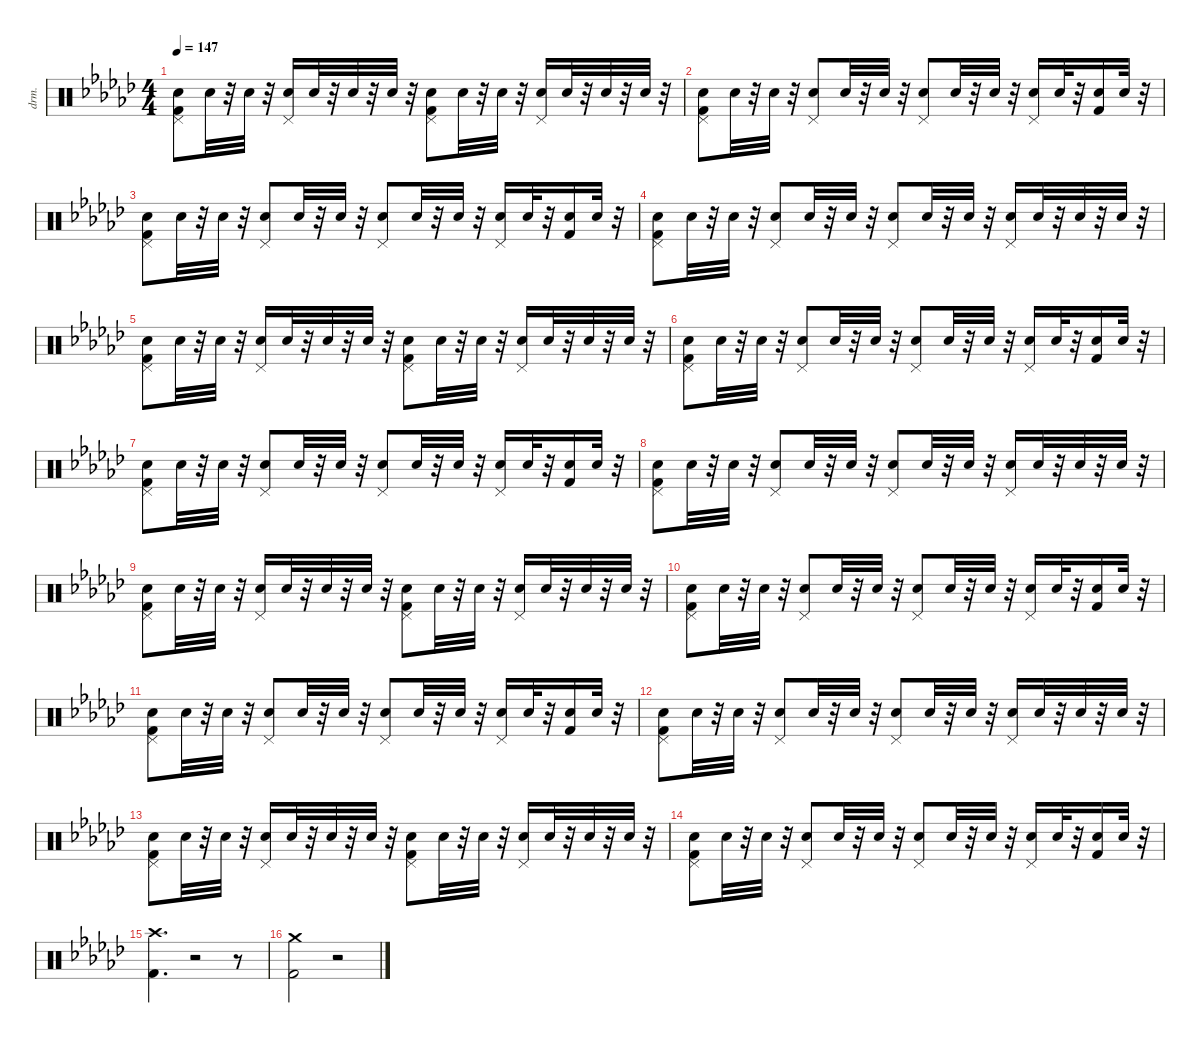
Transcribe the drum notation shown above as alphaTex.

\defaultSystemsLayout 4
\hideDynamics
\bracketExtendMode nobrackets
\otherSystemsTrackNameOrientation horizontal
\track ("Drums" "drm.") {instrument percussion}
\staff {score}
\articulation defaults
\ts (4 4)
\tempo 147
\clef neutral
\ks ebminor
("Pedal Hi-Hat (hit)"{acc forcenatural} "Kick (hit) 2"{acc forcenatural} "Snare (hit) 2"{acc forcenatural}).8{dy f beam Down} "Snare (hit) 2"{acc forcenatural}.32{dy mf beam Down} r.32{beam Down} "Snare (hit) 2"{acc forcenatural}.32{beam Down} r.32{beam Down} ("Pedal Hi-Hat (hit)"{acc forcenatural} "Snare (hit) 2"{acc forcenatural}).16{dy f beam Up} "Snare (hit) 2"{acc forcenatural}.32{dy mf beam Up} r.32{beam Up} "Snare (hit) 2"{acc forcenatural}.32{beam Up} r.32{beam Up} "Snare (hit) 2"{acc forcenatural}.32{beam Up} r.32{beam Up} ("Pedal Hi-Hat (hit)"{acc forcenatural} "Kick (hit) 2"{acc forcenatural} "Snare (hit) 2"{acc forcenatural}).8{dy f beam Down} "Snare (hit) 2"{acc forcenatural}.32{dy mf beam Down} r.32{beam Down} "Snare (hit) 2"{acc forcenatural}.32{beam Down} r.32{beam Down} ("Pedal Hi-Hat (hit)"{acc forcenatural} "Snare (hit) 2"{acc forcenatural}).16{dy f beam Up} "Snare (hit) 2"{acc forcenatural}.32{dy mf beam Up} r.32{beam Up} "Snare (hit) 2"{acc forcenatural}.32{beam Up} r.32{beam Up} "Snare (hit) 2"{acc forcenatural}.32{beam Up} r.32{beam Up} |
("Pedal Hi-Hat (hit)"{acc forcenatural} "Kick (hit) 2"{acc forcenatural} "Snare (hit) 2"{acc forcenatural}).8{dy f beam Down} "Snare (hit) 2"{acc forcenatural}.32{dy mf beam Down} r.32{beam Down} "Snare (hit) 2"{acc forcenatural}.32{beam Down} r.32{beam Down} ("Pedal Hi-Hat (hit)"{acc forcenatural} "Snare (hit) 2"{acc forcenatural}).8{dy f beam Up} "Snare (hit) 2"{acc forcenatural}.32{dy mf beam Up} r.32{beam Up} "Snare (hit) 2"{acc forcenatural}.32{beam Up} r.32{beam Up} ("Pedal Hi-Hat (hit)"{acc forcenatural} "Snare (hit) 2"{acc forcenatural}).8{dy f beam Up} "Snare (hit) 2"{acc forcenatural}.32{dy mf beam Up} r.32{beam Up} "Snare (hit) 2"{acc forcenatural}.32{beam Up} r.32{beam Up} ("Pedal Hi-Hat (hit)"{acc forcenatural} "Snare (hit) 2"{acc forcenatural}).16{dy f beam Up} "Snare (hit) 2"{acc forcenatural}.32{dy mf beam Up} r.32{beam Up} ("Kick (hit) 2"{acc forcenatural} "Snare (hit) 2"{acc forcenatural}).16{dy f beam Up} "Snare (hit) 2"{acc forcenatural}.32{dy mf beam Up} r.32{beam Up} |
("Pedal Hi-Hat (hit)"{acc forcenatural} "Kick (hit) 2"{acc forcenatural} "Snare (hit) 2"{acc forcenatural}).8{dy f beam Down} "Snare (hit) 2"{acc forcenatural}.32{dy mf beam Down} r.32{beam Down} "Snare (hit) 2"{acc forcenatural}.32{beam Down} r.32{beam Down} ("Pedal Hi-Hat (hit)"{acc forcenatural} "Snare (hit) 2"{acc forcenatural}).8{dy f beam Up} "Snare (hit) 2"{acc forcenatural}.32{dy mf beam Up} r.32{beam Up} "Snare (hit) 2"{acc forcenatural}.32{beam Up} r.32{beam Up} ("Pedal Hi-Hat (hit)"{acc forcenatural} "Snare (hit) 2"{acc forcenatural}).8{dy f beam Up} "Snare (hit) 2"{acc forcenatural}.32{dy mf beam Up} r.32{beam Up} "Snare (hit) 2"{acc forcenatural}.32{beam Up} r.32{beam Up} ("Pedal Hi-Hat (hit)"{acc forcenatural} "Snare (hit) 2"{acc forcenatural}).16{dy f beam Up} "Snare (hit) 2"{acc forcenatural}.32{dy mf beam Up} r.32{beam Up} ("Kick (hit) 2"{acc forcenatural} "Snare (hit) 2"{acc forcenatural}).16{dy f beam Up} "Snare (hit) 2"{acc forcenatural}.32{dy mf beam Up} r.32{beam Up} |
("Pedal Hi-Hat (hit)"{acc forcenatural} "Kick (hit) 2"{acc forcenatural} "Snare (hit) 2"{acc forcenatural}).8{dy f beam Down} "Snare (hit) 2"{acc forcenatural}.32{dy mf beam Down} r.32{beam Down} "Snare (hit) 2"{acc forcenatural}.32{beam Down} r.32{beam Down} ("Pedal Hi-Hat (hit)"{acc forcenatural} "Snare (hit) 2"{acc forcenatural}).8{dy f beam Up} "Snare (hit) 2"{acc forcenatural}.32{dy mf beam Up} r.32{beam Up} "Snare (hit) 2"{acc forcenatural}.32{beam Up} r.32{beam Up} ("Pedal Hi-Hat (hit)"{acc forcenatural} "Snare (hit) 2"{acc forcenatural}).8{dy f beam Up} "Snare (hit) 2"{acc forcenatural}.32{dy mf beam Up} r.32{beam Up} "Snare (hit) 2"{acc forcenatural}.32{beam Up} r.32{beam Up} ("Pedal Hi-Hat (hit)"{acc forcenatural} "Snare (hit) 2"{acc forcenatural}).16{dy f beam Up} "Snare (hit) 2"{acc forcenatural}.32{dy mf beam Up} r.32{beam Up} "Snare (hit) 2"{acc forcenatural}.32{beam Up} r.32{beam Up} "Snare (hit) 2"{acc forcenatural}.32{beam Up} r.32{beam Up} |
("Pedal Hi-Hat (hit)"{acc forcenatural} "Kick (hit) 2"{acc forcenatural} "Snare (hit) 2"{acc forcenatural}).8{dy f beam Down} "Snare (hit) 2"{acc forcenatural}.32{dy mf beam Down} r.32{beam Down} "Snare (hit) 2"{acc forcenatural}.32{beam Down} r.32{beam Down} ("Pedal Hi-Hat (hit)"{acc forcenatural} "Snare (hit) 2"{acc forcenatural}).16{dy f beam Up} "Snare (hit) 2"{acc forcenatural}.32{dy mf beam Up} r.32{beam Up} "Snare (hit) 2"{acc forcenatural}.32{beam Up} r.32{beam Up} "Snare (hit) 2"{acc forcenatural}.32{beam Up} r.32{beam Up} ("Pedal Hi-Hat (hit)"{acc forcenatural} "Kick (hit) 2"{acc forcenatural} "Snare (hit) 2"{acc forcenatural}).8{dy f beam Down} "Snare (hit) 2"{acc forcenatural}.32{dy mf beam Down} r.32{beam Down} "Snare (hit) 2"{acc forcenatural}.32{beam Down} r.32{beam Down} ("Pedal Hi-Hat (hit)"{acc forcenatural} "Snare (hit) 2"{acc forcenatural}).16{dy f beam Up} "Snare (hit) 2"{acc forcenatural}.32{dy mf beam Up} r.32{beam Up} "Snare (hit) 2"{acc forcenatural}.32{beam Up} r.32{beam Up} "Snare (hit) 2"{acc forcenatural}.32{beam Up} r.32{beam Up} |
("Pedal Hi-Hat (hit)"{acc forcenatural} "Kick (hit) 2"{acc forcenatural} "Snare (hit) 2"{acc forcenatural}).8{dy f beam Down} "Snare (hit) 2"{acc forcenatural}.32{dy mf beam Down} r.32{beam Down} "Snare (hit) 2"{acc forcenatural}.32{beam Down} r.32{beam Down} ("Pedal Hi-Hat (hit)"{acc forcenatural} "Snare (hit) 2"{acc forcenatural}).8{dy f beam Up} "Snare (hit) 2"{acc forcenatural}.32{dy mf beam Up} r.32{beam Up} "Snare (hit) 2"{acc forcenatural}.32{beam Up} r.32{beam Up} ("Pedal Hi-Hat (hit)"{acc forcenatural} "Snare (hit) 2"{acc forcenatural}).8{dy f beam Up} "Snare (hit) 2"{acc forcenatural}.32{dy mf beam Up} r.32{beam Up} "Snare (hit) 2"{acc forcenatural}.32{beam Up} r.32{beam Up} ("Pedal Hi-Hat (hit)"{acc forcenatural} "Snare (hit) 2"{acc forcenatural}).16{dy f beam Up} "Snare (hit) 2"{acc forcenatural}.32{dy mf beam Up} r.32{beam Up} ("Kick (hit) 2"{acc forcenatural} "Snare (hit) 2"{acc forcenatural}).16{dy f beam Up} "Snare (hit) 2"{acc forcenatural}.32{dy mf beam Up} r.32{beam Up} |
("Pedal Hi-Hat (hit)"{acc forcenatural} "Kick (hit) 2"{acc forcenatural} "Snare (hit) 2"{acc forcenatural}).8{dy f beam Down} "Snare (hit) 2"{acc forcenatural}.32{dy mf beam Down} r.32{beam Down} "Snare (hit) 2"{acc forcenatural}.32{beam Down} r.32{beam Down} ("Pedal Hi-Hat (hit)"{acc forcenatural} "Snare (hit) 2"{acc forcenatural}).8{dy f beam Up} "Snare (hit) 2"{acc forcenatural}.32{dy mf beam Up} r.32{beam Up} "Snare (hit) 2"{acc forcenatural}.32{beam Up} r.32{beam Up} ("Pedal Hi-Hat (hit)"{acc forcenatural} "Snare (hit) 2"{acc forcenatural}).8{dy f beam Up} "Snare (hit) 2"{acc forcenatural}.32{dy mf beam Up} r.32{beam Up} "Snare (hit) 2"{acc forcenatural}.32{beam Up} r.32{beam Up} ("Pedal Hi-Hat (hit)"{acc forcenatural} "Snare (hit) 2"{acc forcenatural}).16{dy f beam Up} "Snare (hit) 2"{acc forcenatural}.32{dy mf beam Up} r.32{beam Up} ("Kick (hit) 2"{acc forcenatural} "Snare (hit) 2"{acc forcenatural}).16{dy f beam Up} "Snare (hit) 2"{acc forcenatural}.32{dy mf beam Up} r.32{beam Up} |
("Pedal Hi-Hat (hit)"{acc forcenatural} "Kick (hit) 2"{acc forcenatural} "Snare (hit) 2"{acc forcenatural}).8{dy f beam Down} "Snare (hit) 2"{acc forcenatural}.32{dy mf beam Down} r.32{beam Down} "Snare (hit) 2"{acc forcenatural}.32{beam Down} r.32{beam Down} ("Pedal Hi-Hat (hit)"{acc forcenatural} "Snare (hit) 2"{acc forcenatural}).8{dy f beam Up} "Snare (hit) 2"{acc forcenatural}.32{dy mf beam Up} r.32{beam Up} "Snare (hit) 2"{acc forcenatural}.32{beam Up} r.32{beam Up} ("Pedal Hi-Hat (hit)"{acc forcenatural} "Snare (hit) 2"{acc forcenatural}).8{dy f beam Up} "Snare (hit) 2"{acc forcenatural}.32{dy mf beam Up} r.32{beam Up} "Snare (hit) 2"{acc forcenatural}.32{beam Up} r.32{beam Up} ("Pedal Hi-Hat (hit)"{acc forcenatural} "Snare (hit) 2"{acc forcenatural}).16{dy f beam Up} "Snare (hit) 2"{acc forcenatural}.32{dy mf beam Up} r.32{beam Up} "Snare (hit) 2"{acc forcenatural}.32{beam Up} r.32{beam Up} "Snare (hit) 2"{acc forcenatural}.32{beam Up} r.32{beam Up} |
("Pedal Hi-Hat (hit)"{acc forcenatural} "Kick (hit) 2"{acc forcenatural} "Snare (hit) 2"{acc forcenatural}).8{dy f beam Down} "Snare (hit) 2"{acc forcenatural}.32{dy mf beam Down} r.32{beam Down} "Snare (hit) 2"{acc forcenatural}.32{beam Down} r.32{beam Down} ("Pedal Hi-Hat (hit)"{acc forcenatural} "Snare (hit) 2"{acc forcenatural}).16{dy f beam Up} "Snare (hit) 2"{acc forcenatural}.32{dy mf beam Up} r.32{beam Up} "Snare (hit) 2"{acc forcenatural}.32{beam Up} r.32{beam Up} "Snare (hit) 2"{acc forcenatural}.32{beam Up} r.32{beam Up} ("Pedal Hi-Hat (hit)"{acc forcenatural} "Kick (hit) 2"{acc forcenatural} "Snare (hit) 2"{acc forcenatural}).8{dy f beam Down} "Snare (hit) 2"{acc forcenatural}.32{dy mf beam Down} r.32{beam Down} "Snare (hit) 2"{acc forcenatural}.32{beam Down} r.32{beam Down} ("Pedal Hi-Hat (hit)"{acc forcenatural} "Snare (hit) 2"{acc forcenatural}).16{dy f beam Up} "Snare (hit) 2"{acc forcenatural}.32{dy mf beam Up} r.32{beam Up} "Snare (hit) 2"{acc forcenatural}.32{beam Up} r.32{beam Up} "Snare (hit) 2"{acc forcenatural}.32{beam Up} r.32{beam Up} |
("Pedal Hi-Hat (hit)"{acc forcenatural} "Kick (hit) 2"{acc forcenatural} "Snare (hit) 2"{acc forcenatural}).8{dy f beam Down} "Snare (hit) 2"{acc forcenatural}.32{dy mf beam Down} r.32{beam Down} "Snare (hit) 2"{acc forcenatural}.32{beam Down} r.32{beam Down} ("Pedal Hi-Hat (hit)"{acc forcenatural} "Snare (hit) 2"{acc forcenatural}).8{dy f beam Up} "Snare (hit) 2"{acc forcenatural}.32{dy mf beam Up} r.32{beam Up} "Snare (hit) 2"{acc forcenatural}.32{beam Up} r.32{beam Up} ("Pedal Hi-Hat (hit)"{acc forcenatural} "Snare (hit) 2"{acc forcenatural}).8{dy f beam Up} "Snare (hit) 2"{acc forcenatural}.32{dy mf beam Up} r.32{beam Up} "Snare (hit) 2"{acc forcenatural}.32{beam Up} r.32{beam Up} ("Pedal Hi-Hat (hit)"{acc forcenatural} "Snare (hit) 2"{acc forcenatural}).16{dy f beam Up} "Snare (hit) 2"{acc forcenatural}.32{dy mf beam Up} r.32{beam Up} ("Kick (hit) 2"{acc forcenatural} "Snare (hit) 2"{acc forcenatural}).16{dy f beam Up} "Snare (hit) 2"{acc forcenatural}.32{dy mf beam Up} r.32{beam Up} |
("Pedal Hi-Hat (hit)"{acc forcenatural} "Kick (hit) 2"{acc forcenatural} "Snare (hit) 2"{acc forcenatural}).8{dy f beam Down} "Snare (hit) 2"{acc forcenatural}.32{dy mf beam Down} r.32{beam Down} "Snare (hit) 2"{acc forcenatural}.32{beam Down} r.32{beam Down} ("Pedal Hi-Hat (hit)"{acc forcenatural} "Snare (hit) 2"{acc forcenatural}).8{dy f beam Up} "Snare (hit) 2"{acc forcenatural}.32{dy mf beam Up} r.32{beam Up} "Snare (hit) 2"{acc forcenatural}.32{beam Up} r.32{beam Up} ("Pedal Hi-Hat (hit)"{acc forcenatural} "Snare (hit) 2"{acc forcenatural}).8{dy f beam Up} "Snare (hit) 2"{acc forcenatural}.32{dy mf beam Up} r.32{beam Up} "Snare (hit) 2"{acc forcenatural}.32{beam Up} r.32{beam Up} ("Pedal Hi-Hat (hit)"{acc forcenatural} "Snare (hit) 2"{acc forcenatural}).16{dy f beam Up} "Snare (hit) 2"{acc forcenatural}.32{dy mf beam Up} r.32{beam Up} ("Kick (hit) 2"{acc forcenatural} "Snare (hit) 2"{acc forcenatural}).16{dy f beam Up} "Snare (hit) 2"{acc forcenatural}.32{dy mf beam Up} r.32{beam Up} |
("Pedal Hi-Hat (hit)"{acc forcenatural} "Kick (hit) 2"{acc forcenatural} "Snare (hit) 2"{acc forcenatural}).8{dy f beam Down} "Snare (hit) 2"{acc forcenatural}.32{dy mf beam Down} r.32{beam Down} "Snare (hit) 2"{acc forcenatural}.32{beam Down} r.32{beam Down} ("Pedal Hi-Hat (hit)"{acc forcenatural} "Snare (hit) 2"{acc forcenatural}).8{dy f beam Up} "Snare (hit) 2"{acc forcenatural}.32{dy mf beam Up} r.32{beam Up} "Snare (hit) 2"{acc forcenatural}.32{beam Up} r.32{beam Up} ("Pedal Hi-Hat (hit)"{acc forcenatural} "Snare (hit) 2"{acc forcenatural}).8{dy f beam Up} "Snare (hit) 2"{acc forcenatural}.32{dy mf beam Up} r.32{beam Up} "Snare (hit) 2"{acc forcenatural}.32{beam Up} r.32{beam Up} ("Pedal Hi-Hat (hit)"{acc forcenatural} "Snare (hit) 2"{acc forcenatural}).16{dy f beam Up} "Snare (hit) 2"{acc forcenatural}.32{dy mf beam Up} r.32{beam Up} "Snare (hit) 2"{acc forcenatural}.32{beam Up} r.32{beam Up} "Snare (hit) 2"{acc forcenatural}.32{beam Up} r.32{beam Up} |
("Pedal Hi-Hat (hit)"{acc forcenatural} "Kick (hit) 2"{acc forcenatural} "Snare (hit) 2"{acc forcenatural}).8{dy f beam Down} "Snare (hit) 2"{acc forcenatural}.32{dy mf beam Down} r.32{beam Down} "Snare (hit) 2"{acc forcenatural}.32{beam Down} r.32{beam Down} ("Pedal Hi-Hat (hit)"{acc forcenatural} "Snare (hit) 2"{acc forcenatural}).16{dy f beam Up} "Snare (hit) 2"{acc forcenatural}.32{dy mf beam Up} r.32{beam Up} "Snare (hit) 2"{acc forcenatural}.32{beam Up} r.32{beam Up} "Snare (hit) 2"{acc forcenatural}.32{beam Up} r.32{beam Up} ("Pedal Hi-Hat (hit)"{acc forcenatural} "Kick (hit) 2"{acc forcenatural} "Snare (hit) 2"{acc forcenatural}).8{dy f beam Down} "Snare (hit) 2"{acc forcenatural}.32{dy mf beam Down} r.32{beam Down} "Snare (hit) 2"{acc forcenatural}.32{beam Down} r.32{beam Down} ("Pedal Hi-Hat (hit)"{acc forcenatural} "Snare (hit) 2"{acc forcenatural}).16{dy f beam Up} "Snare (hit) 2"{acc forcenatural}.32{dy mf beam Up} r.32{beam Up} "Snare (hit) 2"{acc forcenatural}.32{beam Up} r.32{beam Up} "Snare (hit) 2"{acc forcenatural}.32{beam Up} r.32{beam Up} |
("Pedal Hi-Hat (hit)"{acc forcenatural} "Kick (hit) 2"{acc forcenatural} "Snare (hit) 2"{acc forcenatural}).8{dy f beam Down} "Snare (hit) 2"{acc forcenatural}.32{dy mf beam Down} r.32{beam Down} "Snare (hit) 2"{acc forcenatural}.32{beam Down} r.32{beam Down} ("Pedal Hi-Hat (hit)"{acc forcenatural} "Snare (hit) 2"{acc forcenatural}).8{dy f beam Up} "Snare (hit) 2"{acc forcenatural}.32{dy mf beam Up} r.32{beam Up} "Snare (hit) 2"{acc forcenatural}.32{beam Up} r.32{beam Up} ("Pedal Hi-Hat (hit)"{acc forcenatural} "Snare (hit) 2"{acc forcenatural}).8{dy f beam Up} "Snare (hit) 2"{acc forcenatural}.32{dy mf beam Up} r.32{beam Up} "Snare (hit) 2"{acc forcenatural}.32{beam Up} r.32{beam Up} ("Pedal Hi-Hat (hit)"{acc forcenatural} "Snare (hit) 2"{acc forcenatural}).16{dy f beam Up} "Snare (hit) 2"{acc forcenatural}.32{dy mf beam Up} r.32{beam Up} ("Kick (hit) 2"{acc forcenatural} "Snare (hit) 2"{acc forcenatural}).16{dy f beam Up} "Snare (hit) 2"{acc forcenatural}.32{dy mf beam Up} r.32{beam Up} |
("Kick (hit) 2"{acc forcenatural} "Crash high (hit)"{acc forcenatural}).4{d dy f beam Down} r.2{beam Down} r.8{beam Down} |
("Kick (hit) 2"{acc forcenatural} "Crash medium (hit)"{acc forcenatural}).2{beam Down} r.2{beam Down}
